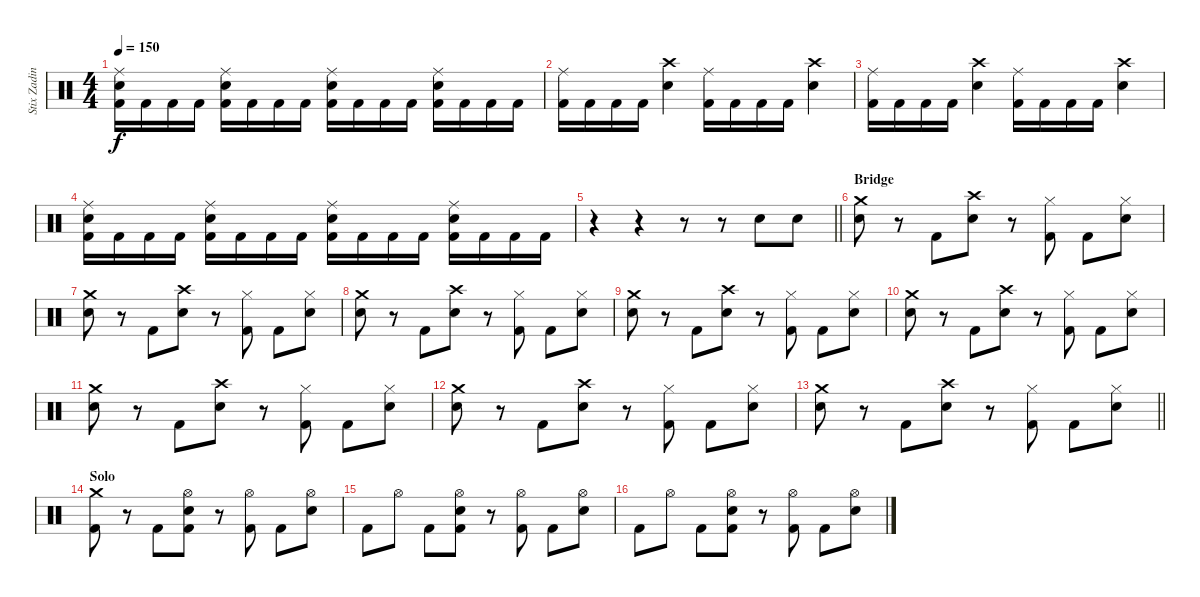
\track ("Stix Zadina" "Stix Zadin") {instrument percussion}
\staff {score}
\articulation defaults
\ts (4 4)
\tempo 150
\clef neutral
\ks c
("Ride (middle)" "Snare (hit) 2" "Kick (hit) 2").16{dy f} "Kick (hit) 2".16 "Kick (hit) 2".16 "Kick (hit) 2".16 ("Ride (middle)" "Snare (hit) 2" "Kick (hit) 2").16 "Kick (hit) 2".16 "Kick (hit) 2".16 "Kick (hit) 2".16 ("Ride (middle)" "Snare (hit) 2" "Kick (hit) 2").16 "Kick (hit) 2".16 "Kick (hit) 2".16 "Kick (hit) 2".16 ("Ride (middle)" "Snare (hit) 2" "Kick (hit) 2").16 "Kick (hit) 2".16 "Kick (hit) 2".16 "Kick (hit) 2".16 |
("Ride (middle)" "Kick (hit) 2").16 "Kick (hit) 2".16 "Kick (hit) 2".16 "Kick (hit) 2".16 ("Crash high (hit)" "Snare (hit) 2").4 ("Ride (middle)" "Kick (hit) 2").16 "Kick (hit) 2".16 "Kick (hit) 2".16 "Kick (hit) 2".16 ("Crash high (hit)" "Snare (hit) 2").4 |
("Ride (middle)" "Kick (hit) 2").16 "Kick (hit) 2".16 "Kick (hit) 2".16 "Kick (hit) 2".16 ("Crash high (hit)" "Snare (hit) 2").4 ("Ride (middle)" "Kick (hit) 2").16 "Kick (hit) 2".16 "Kick (hit) 2".16 "Kick (hit) 2".16 ("Crash high (hit)" "Snare (hit) 2").4 |
("Ride (middle)" "Snare (hit) 2" "Kick (hit) 2").16 "Kick (hit) 2".16 "Kick (hit) 2".16 "Kick (hit) 2".16 ("Ride (middle)" "Snare (hit) 2" "Kick (hit) 2").16 "Kick (hit) 2".16 "Kick (hit) 2".16 "Kick (hit) 2".16 ("Ride (middle)" "Snare (hit) 2" "Kick (hit) 2").16 "Kick (hit) 2".16 "Kick (hit) 2".16 "Kick (hit) 2".16 ("Ride (middle)" "Snare (hit) 2" "Kick (hit) 2").16 "Kick (hit) 2".16 "Kick (hit) 2".16 "Kick (hit) 2".16 |
\barLineRight lightlight
r.4 r.4 r.8 r.8 "Snare (hit) 2".8 "Snare (hit) 2".8 |
\section ("" "Bridge")
("Crash medium (hit)" "Snare (hit) 2").8 r.8 "Kick (hit) 2".8 ("Crash high (hit)" "Snare (hit) 2").8 r.8 ("Hi-Hat (closed)" "Kick (hit) 2").8 "Kick (hit) 2".8 ("Hi-Hat (closed)" "Snare (hit) 2").8 |
("Crash medium (hit)" "Snare (hit) 2").8 r.8 "Kick (hit) 2".8 ("Crash high (hit)" "Snare (hit) 2").8 r.8 ("Hi-Hat (closed)" "Kick (hit) 2").8 "Kick (hit) 2".8 ("Hi-Hat (closed)" "Snare (hit) 2").8 |
("Crash medium (hit)" "Snare (hit) 2").8 r.8 "Kick (hit) 2".8 ("Crash high (hit)" "Snare (hit) 2").8 r.8 ("Hi-Hat (closed)" "Kick (hit) 2").8 "Kick (hit) 2".8 ("Hi-Hat (closed)" "Snare (hit) 2").8 |
("Crash medium (hit)" "Snare (hit) 2").8 r.8 "Kick (hit) 2".8 ("Crash high (hit)" "Snare (hit) 2").8 r.8 ("Hi-Hat (closed)" "Kick (hit) 2").8 "Kick (hit) 2".8 ("Hi-Hat (closed)" "Snare (hit) 2").8 |
("Crash medium (hit)" "Snare (hit) 2").8 r.8 "Kick (hit) 2".8 ("Crash high (hit)" "Snare (hit) 2").8 r.8 ("Hi-Hat (closed)" "Kick (hit) 2").8 "Kick (hit) 2".8 ("Hi-Hat (closed)" "Snare (hit) 2").8 |
("Crash medium (hit)" "Snare (hit) 2").8 r.8 "Kick (hit) 2".8 ("Crash high (hit)" "Snare (hit) 2").8 r.8 ("Hi-Hat (closed)" "Kick (hit) 2").8 "Kick (hit) 2".8 ("Hi-Hat (closed)" "Snare (hit) 2").8 |
("Crash medium (hit)" "Snare (hit) 2").8 r.8 "Kick (hit) 2".8 ("Crash high (hit)" "Snare (hit) 2").8 r.8 ("Hi-Hat (closed)" "Kick (hit) 2").8 "Kick (hit) 2".8 ("Hi-Hat (closed)" "Snare (hit) 2").8 |
\barLineRight lightlight
("Crash medium (hit)" "Snare (hit) 2").8 r.8 "Kick (hit) 2".8 ("Crash high (hit)" "Snare (hit) 2").8 r.8 ("Hi-Hat (closed)" "Kick (hit) 2").8 "Kick (hit) 2".8 ("Hi-Hat (closed)" "Snare (hit) 2").8 |
\section ("" "Solo")
("Crash medium (hit)" "Kick (hit) 2").8 r.8 "Kick (hit) 2".8 ("Hi-Hat (open)" "Snare (hit) 2" "Kick (hit) 2").8 r.8 ("Hi-Hat (open)" "Kick (hit) 2").8 "Kick (hit) 2".8 ("Hi-Hat (open)" "Snare (hit) 2").8 |
"Kick (hit) 2".8 "Hi-Hat (open)".8 "Kick (hit) 2".8 ("Hi-Hat (open)" "Snare (hit) 2" "Kick (hit) 2").8 r.8 ("Hi-Hat (open)" "Kick (hit) 2").8 "Kick (hit) 2".8 ("Hi-Hat (open)" "Snare (hit) 2").8 |
"Kick (hit) 2".8 "Hi-Hat (open)".8 "Kick (hit) 2".8 ("Hi-Hat (open)" "Snare (hit) 2" "Kick (hit) 2").8 r.8 ("Hi-Hat (open)" "Kick (hit) 2").8 "Kick (hit) 2".8 ("Hi-Hat (open)" "Snare (hit) 2").8
